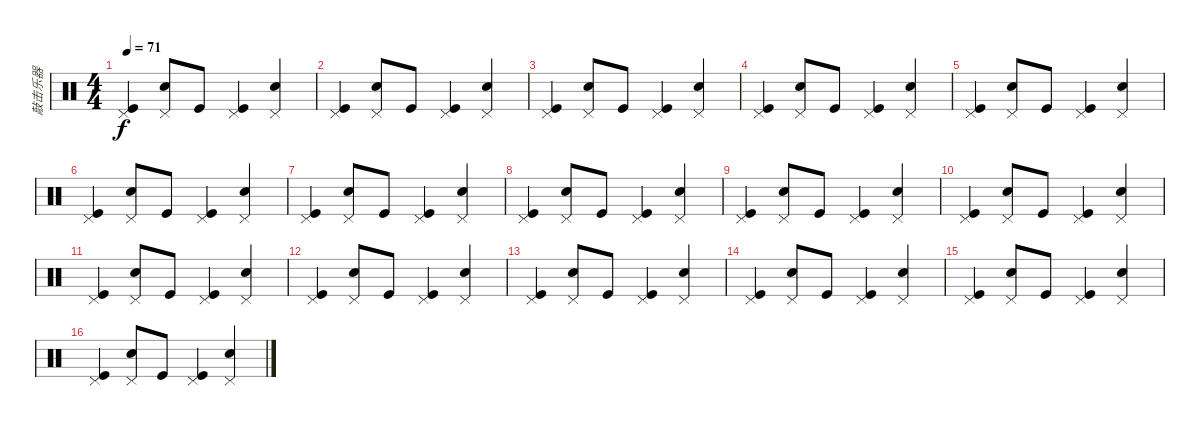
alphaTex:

\track ("敲击乐器" "敲击乐器") {instrument percussion}
\staff {score}
\articulation defaults
\ts (4 4)
\tempo 71
\clef neutral
\ks c
("Pedal Hi-Hat (hit)" "Kick (hit)").4{dy f} ("Pedal Hi-Hat (hit)" "Snare (hit) 2").8 "Kick (hit)".8 ("Pedal Hi-Hat (hit)" "Kick (hit)").4 ("Pedal Hi-Hat (hit)" "Snare (hit) 2").4 |
("Pedal Hi-Hat (hit)" "Kick (hit)").4 ("Pedal Hi-Hat (hit)" "Snare (hit) 2").8 "Kick (hit)".8 ("Pedal Hi-Hat (hit)" "Kick (hit)").4 ("Pedal Hi-Hat (hit)" "Snare (hit) 2").4 |
("Pedal Hi-Hat (hit)" "Kick (hit)").4 ("Pedal Hi-Hat (hit)" "Snare (hit) 2").8 "Kick (hit)".8 ("Pedal Hi-Hat (hit)" "Kick (hit)").4 ("Pedal Hi-Hat (hit)" "Snare (hit) 2").4 |
("Pedal Hi-Hat (hit)" "Kick (hit)").4 ("Pedal Hi-Hat (hit)" "Snare (hit) 2").8 "Kick (hit)".8 ("Pedal Hi-Hat (hit)" "Kick (hit)").4 ("Pedal Hi-Hat (hit)" "Snare (hit) 2").4 |
("Pedal Hi-Hat (hit)" "Kick (hit)").4 ("Pedal Hi-Hat (hit)" "Snare (hit) 2").8 "Kick (hit)".8 ("Pedal Hi-Hat (hit)" "Kick (hit)").4 ("Pedal Hi-Hat (hit)" "Snare (hit) 2").4 |
("Pedal Hi-Hat (hit)" "Kick (hit)").4 ("Pedal Hi-Hat (hit)" "Snare (hit) 2").8 "Kick (hit)".8 ("Pedal Hi-Hat (hit)" "Kick (hit)").4 ("Pedal Hi-Hat (hit)" "Snare (hit) 2").4 |
("Pedal Hi-Hat (hit)" "Kick (hit)").4 ("Pedal Hi-Hat (hit)" "Snare (hit) 2").8 "Kick (hit)".8 ("Pedal Hi-Hat (hit)" "Kick (hit)").4 ("Pedal Hi-Hat (hit)" "Snare (hit) 2").4 |
("Pedal Hi-Hat (hit)" "Kick (hit)").4 ("Pedal Hi-Hat (hit)" "Snare (hit) 2").8 "Kick (hit)".8 ("Pedal Hi-Hat (hit)" "Kick (hit)").4 ("Pedal Hi-Hat (hit)" "Snare (hit) 2").4 |
("Pedal Hi-Hat (hit)" "Kick (hit)").4 ("Pedal Hi-Hat (hit)" "Snare (hit) 2").8 "Kick (hit)".8 ("Pedal Hi-Hat (hit)" "Kick (hit)").4 ("Pedal Hi-Hat (hit)" "Snare (hit) 2").4 |
("Pedal Hi-Hat (hit)" "Kick (hit)").4 ("Pedal Hi-Hat (hit)" "Snare (hit) 2").8 "Kick (hit)".8 ("Pedal Hi-Hat (hit)" "Kick (hit)").4 ("Pedal Hi-Hat (hit)" "Snare (hit) 2").4 |
("Pedal Hi-Hat (hit)" "Kick (hit)").4 ("Pedal Hi-Hat (hit)" "Snare (hit) 2").8 "Kick (hit)".8 ("Pedal Hi-Hat (hit)" "Kick (hit)").4 ("Pedal Hi-Hat (hit)" "Snare (hit) 2").4 |
("Pedal Hi-Hat (hit)" "Kick (hit)").4 ("Pedal Hi-Hat (hit)" "Snare (hit) 2").8 "Kick (hit)".8 ("Pedal Hi-Hat (hit)" "Kick (hit)").4 ("Pedal Hi-Hat (hit)" "Snare (hit) 2").4 |
("Pedal Hi-Hat (hit)" "Kick (hit)").4 ("Pedal Hi-Hat (hit)" "Snare (hit) 2").8 "Kick (hit)".8 ("Pedal Hi-Hat (hit)" "Kick (hit)").4 ("Pedal Hi-Hat (hit)" "Snare (hit) 2").4 |
("Pedal Hi-Hat (hit)" "Kick (hit)").4 ("Pedal Hi-Hat (hit)" "Snare (hit) 2").8 "Kick (hit)".8 ("Pedal Hi-Hat (hit)" "Kick (hit)").4 ("Pedal Hi-Hat (hit)" "Snare (hit) 2").4 |
("Pedal Hi-Hat (hit)" "Kick (hit)").4 ("Pedal Hi-Hat (hit)" "Snare (hit) 2").8 "Kick (hit)".8 ("Pedal Hi-Hat (hit)" "Kick (hit)").4 ("Pedal Hi-Hat (hit)" "Snare (hit) 2").4 |
("Pedal Hi-Hat (hit)" "Kick (hit)").4 ("Pedal Hi-Hat (hit)" "Snare (hit) 2").8 "Kick (hit)".8 ("Pedal Hi-Hat (hit)" "Kick (hit)").4 ("Pedal Hi-Hat (hit)" "Snare (hit) 2").4
